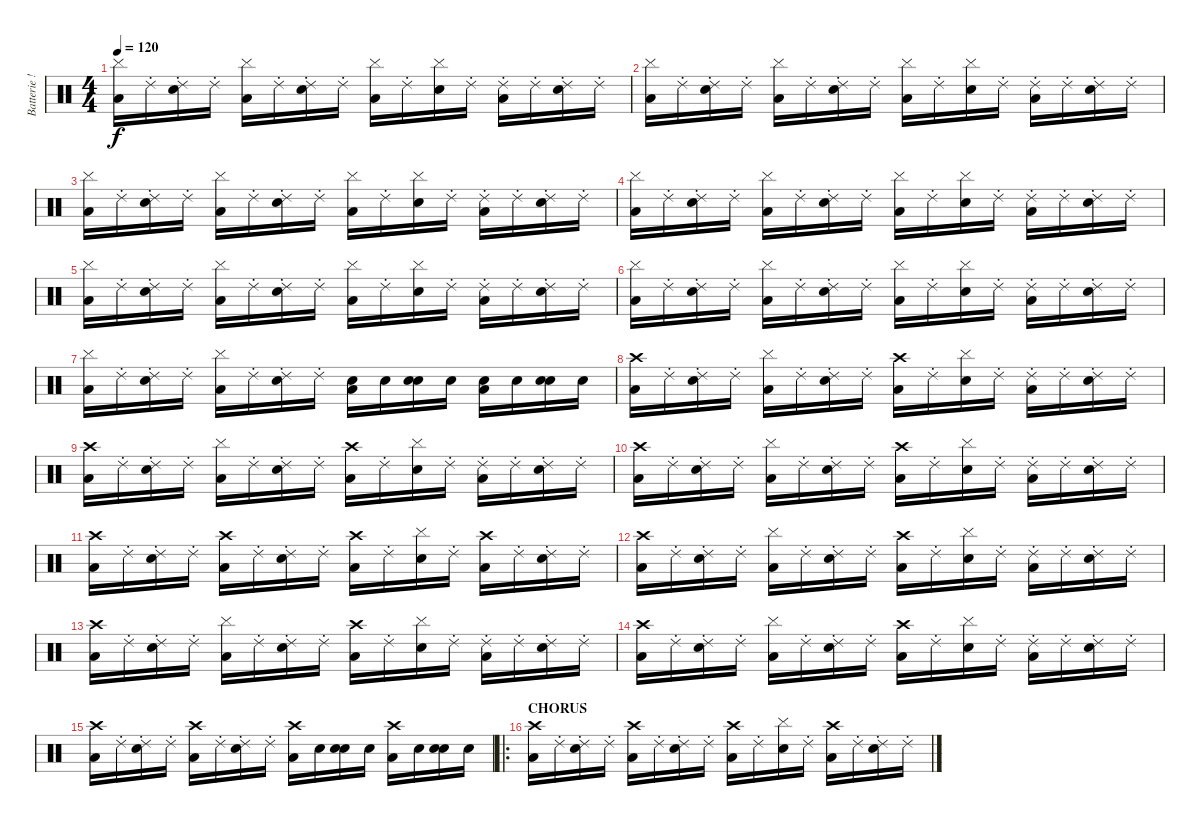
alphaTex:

\track ("Batterie !!" "Batterie !") {instrument percussion}
\staff {score}
\articulation defaults
\ts (4 4)
\tempo 120
\clef neutral
\ks c
("Cymbal (hit)" "Low Floor Tom (hit)").16{dy f} "Ride (choke) 2".16 ("Ride (choke) 2" "Electric Snare (hit)").16 "Ride (choke) 2".16 ("Cymbal (hit)" "Low Floor Tom (hit)").16 "Ride (choke) 2".16 ("Ride (choke) 2" "Electric Snare (hit)").16 "Ride (choke) 2".16 ("Cymbal (hit)" "Low Floor Tom (hit)").16 "Ride (choke) 2".16 ("Cymbal (hit)" "Electric Snare (hit)").16 "Ride (choke) 2".16 ("Ride (choke) 2" "Low Floor Tom (hit)").16 "Ride (choke) 2".16 ("Ride (choke) 2" "Electric Snare (hit)").16 "Ride (choke) 2".16 |
("Cymbal (hit)" "Low Floor Tom (hit)").16 "Ride (choke) 2".16 ("Ride (choke) 2" "Electric Snare (hit)").16 "Ride (choke) 2".16 ("Cymbal (hit)" "Low Floor Tom (hit)").16 "Ride (choke) 2".16 ("Ride (choke) 2" "Electric Snare (hit)").16 "Ride (choke) 2".16 ("Cymbal (hit)" "Low Floor Tom (hit)").16 "Ride (choke) 2".16 ("Cymbal (hit)" "Electric Snare (hit)").16 "Ride (choke) 2".16 ("Ride (choke) 2" "Low Floor Tom (hit)").16 "Ride (choke) 2".16 ("Ride (choke) 2" "Electric Snare (hit)").16 "Ride (choke) 2".16 |
("Cymbal (hit)" "Low Floor Tom (hit)").16 "Ride (choke) 2".16 ("Ride (choke) 2" "Electric Snare (hit)").16 "Ride (choke) 2".16 ("Cymbal (hit)" "Low Floor Tom (hit)").16 "Ride (choke) 2".16 ("Ride (choke) 2" "Electric Snare (hit)").16 "Ride (choke) 2".16 ("Cymbal (hit)" "Low Floor Tom (hit)").16 "Ride (choke) 2".16 ("Cymbal (hit)" "Electric Snare (hit)").16 "Ride (choke) 2".16 ("Ride (choke) 2" "Low Floor Tom (hit)").16 "Ride (choke) 2".16 ("Ride (choke) 2" "Electric Snare (hit)").16 "Ride (choke) 2".16 |
("Cymbal (hit)" "Low Floor Tom (hit)").16 "Ride (choke) 2".16 ("Ride (choke) 2" "Electric Snare (hit)").16 "Ride (choke) 2".16 ("Cymbal (hit)" "Low Floor Tom (hit)").16 "Ride (choke) 2".16 ("Ride (choke) 2" "Electric Snare (hit)").16 "Ride (choke) 2".16 ("Cymbal (hit)" "Low Floor Tom (hit)").16 "Ride (choke) 2".16 ("Cymbal (hit)" "Electric Snare (hit)").16 "Ride (choke) 2".16 ("Ride (choke) 2" "Low Floor Tom (hit)").16 "Ride (choke) 2".16 ("Ride (choke) 2" "Electric Snare (hit)").16 "Ride (choke) 2".16 |
("Cymbal (hit)" "Low Floor Tom (hit)").16 "Ride (choke) 2".16 ("Ride (choke) 2" "Electric Snare (hit)").16 "Ride (choke) 2".16 ("Cymbal (hit)" "Low Floor Tom (hit)").16 "Ride (choke) 2".16 ("Ride (choke) 2" "Electric Snare (hit)").16 "Ride (choke) 2".16 ("Cymbal (hit)" "Low Floor Tom (hit)").16 "Ride (choke) 2".16 ("Cymbal (hit)" "Electric Snare (hit)").16 "Ride (choke) 2".16 ("Ride (choke) 2" "Low Floor Tom (hit)").16 "Ride (choke) 2".16 ("Ride (choke) 2" "Electric Snare (hit)").16 "Ride (choke) 2".16 |
("Cymbal (hit)" "Low Floor Tom (hit)").16 "Ride (choke) 2".16 ("Ride (choke) 2" "Electric Snare (hit)").16 "Ride (choke) 2".16 ("Cymbal (hit)" "Low Floor Tom (hit)").16 "Ride (choke) 2".16 ("Ride (choke) 2" "Electric Snare (hit)").16 "Ride (choke) 2".16 ("Cymbal (hit)" "Low Floor Tom (hit)").16 "Ride (choke) 2".16 ("Cymbal (hit)" "Electric Snare (hit)").16 "Ride (choke) 2".16 ("Ride (choke) 2" "Low Floor Tom (hit)").16 "Ride (choke) 2".16 ("Ride (choke) 2" "Electric Snare (hit)").16 "Ride (choke) 2".16 |
("Cymbal (hit)" "Low Floor Tom (hit)").16 "Ride (choke) 2".16 ("Ride (choke) 2" "Electric Snare (hit)").16 "Ride (choke) 2".16 ("Cymbal (hit)" "Low Floor Tom (hit)").16 "Ride (choke) 2".16 ("Ride (choke) 2" "Electric Snare (hit)").16 "Ride (choke) 2".16 ("Snare (hit) 2" "Low Floor Tom (hit)").16 "Snare (hit) 2".16 ("Snare (hit) 2" "Electric Snare (hit)").16 "Snare (hit) 2".16 ("Snare (hit) 2" "Low Floor Tom (hit)").16 "Snare (hit) 2".16 ("Snare (hit) 2" "Electric Snare (hit)").16 "Snare (hit) 2".16 |
("Crash high (hit)" "Low Floor Tom (hit)").16 "Ride (choke) 2".16 ("Ride (choke) 2" "Electric Snare (hit)").16 "Ride (choke) 2".16 ("Cymbal (hit)" "Low Floor Tom (hit)").16 "Ride (choke) 2".16 ("Ride (choke) 2" "Electric Snare (hit)").16 "Ride (choke) 2".16 ("Crash high (hit)" "Low Floor Tom (hit)").16 "Ride (choke) 2".16 ("Cymbal (hit)" "Electric Snare (hit)").16 "Ride (choke) 2".16 ("Ride (choke) 2" "Low Floor Tom (hit)").16 "Ride (choke) 2".16 ("Ride (choke) 2" "Electric Snare (hit)").16 "Ride (choke) 2".16 |
("Crash high (hit)" "Low Floor Tom (hit)").16 "Ride (choke) 2".16 ("Ride (choke) 2" "Electric Snare (hit)").16 "Ride (choke) 2".16 ("Cymbal (hit)" "Low Floor Tom (hit)").16 "Ride (choke) 2".16 ("Ride (choke) 2" "Electric Snare (hit)").16 "Ride (choke) 2".16 ("Crash high (hit)" "Low Floor Tom (hit)").16 "Ride (choke) 2".16 ("Cymbal (hit)" "Electric Snare (hit)").16 "Ride (choke) 2".16 ("Ride (choke) 2" "Low Floor Tom (hit)").16 "Ride (choke) 2".16 ("Ride (choke) 2" "Electric Snare (hit)").16 "Ride (choke) 2".16 |
("Crash high (hit)" "Low Floor Tom (hit)").16 "Ride (choke) 2".16 ("Ride (choke) 2" "Electric Snare (hit)").16 "Ride (choke) 2".16 ("Cymbal (hit)" "Low Floor Tom (hit)").16 "Ride (choke) 2".16 ("Ride (choke) 2" "Electric Snare (hit)").16 "Ride (choke) 2".16 ("Crash high (hit)" "Low Floor Tom (hit)").16 "Ride (choke) 2".16 ("Cymbal (hit)" "Electric Snare (hit)").16 "Ride (choke) 2".16 ("Ride (choke) 2" "Low Floor Tom (hit)").16 "Ride (choke) 2".16 ("Ride (choke) 2" "Electric Snare (hit)").16 "Ride (choke) 2".16 |
("Crash high (hit)" "Low Floor Tom (hit)").16 "Ride (choke) 2".16 ("Ride (choke) 2" "Electric Snare (hit)").16 "Ride (choke) 2".16 ("Crash high (hit)" "Low Floor Tom (hit)").16 "Ride (choke) 2".16 ("Ride (choke) 2" "Electric Snare (hit)").16 "Ride (choke) 2".16 ("Crash high (hit)" "Low Floor Tom (hit)").16 "Ride (choke) 2".16 ("Cymbal (hit)" "Electric Snare (hit)").16 "Ride (choke) 2".16 ("Crash high (hit)" "Low Floor Tom (hit)").16 "Ride (choke) 2".16 ("Ride (choke) 2" "Electric Snare (hit)").16 "Ride (choke) 2".16 |
("Crash high (hit)" "Low Floor Tom (hit)").16 "Ride (choke) 2".16 ("Ride (choke) 2" "Electric Snare (hit)").16 "Ride (choke) 2".16 ("Cymbal (hit)" "Low Floor Tom (hit)").16 "Ride (choke) 2".16 ("Ride (choke) 2" "Electric Snare (hit)").16 "Ride (choke) 2".16 ("Crash high (hit)" "Low Floor Tom (hit)").16 "Ride (choke) 2".16 ("Cymbal (hit)" "Electric Snare (hit)").16 "Ride (choke) 2".16 ("Ride (choke) 2" "Low Floor Tom (hit)").16 "Ride (choke) 2".16 ("Ride (choke) 2" "Electric Snare (hit)").16 "Ride (choke) 2".16 |
("Crash high (hit)" "Low Floor Tom (hit)").16 "Ride (choke) 2".16 ("Ride (choke) 2" "Electric Snare (hit)").16 "Ride (choke) 2".16 ("Cymbal (hit)" "Low Floor Tom (hit)").16 "Ride (choke) 2".16 ("Ride (choke) 2" "Electric Snare (hit)").16 "Ride (choke) 2".16 ("Crash high (hit)" "Low Floor Tom (hit)").16 "Ride (choke) 2".16 ("Cymbal (hit)" "Electric Snare (hit)").16 "Ride (choke) 2".16 ("Ride (choke) 2" "Low Floor Tom (hit)").16 "Ride (choke) 2".16 ("Ride (choke) 2" "Electric Snare (hit)").16 "Ride (choke) 2".16 |
("Crash high (hit)" "Low Floor Tom (hit)").16 "Ride (choke) 2".16 ("Ride (choke) 2" "Electric Snare (hit)").16 "Ride (choke) 2".16 ("Cymbal (hit)" "Low Floor Tom (hit)").16 "Ride (choke) 2".16 ("Ride (choke) 2" "Electric Snare (hit)").16 "Ride (choke) 2".16 ("Crash high (hit)" "Low Floor Tom (hit)").16 "Ride (choke) 2".16 ("Cymbal (hit)" "Electric Snare (hit)").16 "Ride (choke) 2".16 ("Ride (choke) 2" "Low Floor Tom (hit)").16 "Ride (choke) 2".16 ("Ride (choke) 2" "Electric Snare (hit)").16 "Ride (choke) 2".16 |
("Crash high (hit)" "Low Floor Tom (hit)").16 "Ride (choke) 2".16 ("Ride (choke) 2" "Electric Snare (hit)").16 "Ride (choke) 2".16 ("Crash high (hit)" "Low Floor Tom (hit)").16 "Ride (choke) 2".16 ("Ride (choke) 2" "Electric Snare (hit)").16 "Ride (choke) 2".16 ("Crash high (hit)" "Low Floor Tom (hit)").16 "Snare (hit) 2".16 ("Snare (hit) 2" "Electric Snare (hit)").16 "Snare (hit) 2".16 ("Crash high (hit)" "Low Floor Tom (hit)").16 "Snare (hit) 2".16 ("Snare (hit) 2" "Electric Snare (hit)").16 "Snare (hit) 2".16 |
\ro
\section ("" "CHORUS")
("Crash high (hit)" "Low Floor Tom (hit)").16 "Ride (choke) 2".16 ("Ride (choke) 2" "Electric Snare (hit)").16 "Ride (choke) 2".16 ("Crash high (hit)" "Low Floor Tom (hit)").16 "Ride (choke) 2".16 ("Ride (choke) 2" "Electric Snare (hit)").16 "Ride (choke) 2".16 ("Crash high (hit)" "Low Floor Tom (hit)").16 "Ride (choke) 2".16 ("Cymbal (hit)" "Electric Snare (hit)").16 "Ride (choke) 2".16 ("Crash high (hit)" "Low Floor Tom (hit)").16 "Ride (choke) 2".16 ("Ride (choke) 2" "Electric Snare (hit)").16 "Ride (choke) 2".16
